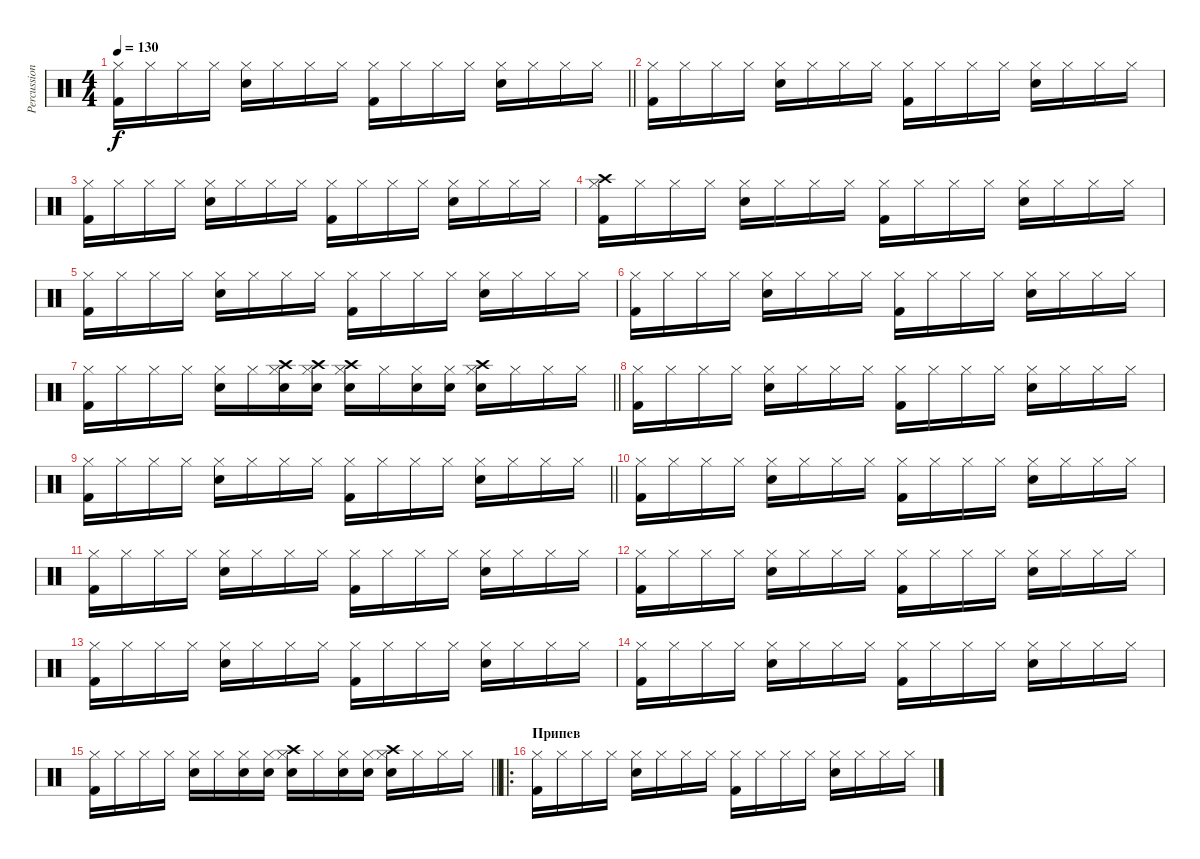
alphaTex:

\track ("Percussion" "Percussion") {instrument percussion}
\staff {score}
\articulation defaults
\ts (4 4)
\tempo 130
\clef neutral
\barLineRight lightlight
\ks c
("Kick (hit) 2" "Hi-Hat (closed)").16{dy f} "Hi-Hat (closed)".16 "Hi-Hat (closed)".16 "Hi-Hat (closed)".16 ("Snare (hit) 2" "Hi-Hat (closed)").16 "Hi-Hat (closed)".16 "Hi-Hat (closed)".16 "Hi-Hat (closed)".16 ("Hi-Hat (closed)" "Kick (hit) 2").16 "Hi-Hat (closed)".16 "Hi-Hat (closed)".16 "Hi-Hat (closed)".16 ("Snare (hit) 2" "Hi-Hat (closed)").16 "Hi-Hat (closed)".16 "Hi-Hat (closed)".16 "Hi-Hat (closed)".16 |
("Kick (hit) 2" "Hi-Hat (closed)").16 "Hi-Hat (closed)".16 "Hi-Hat (closed)".16 "Hi-Hat (closed)".16 ("Snare (hit) 2" "Hi-Hat (closed)").16 "Hi-Hat (closed)".16 "Hi-Hat (closed)".16 "Hi-Hat (closed)".16 ("Hi-Hat (closed)" "Kick (hit) 2").16 "Hi-Hat (closed)".16 "Hi-Hat (closed)".16 "Hi-Hat (closed)".16 ("Snare (hit) 2" "Hi-Hat (closed)").16 "Hi-Hat (closed)".16 "Hi-Hat (closed)".16 "Hi-Hat (closed)".16 |
("Kick (hit) 2" "Hi-Hat (closed)").16 "Hi-Hat (closed)".16 "Hi-Hat (closed)".16 "Hi-Hat (closed)".16 ("Hi-Hat (closed)" "Snare (hit) 2").16 "Hi-Hat (closed)".16 "Hi-Hat (closed)".16 "Hi-Hat (closed)".16 ("Kick (hit) 2" "Hi-Hat (closed)").16 "Hi-Hat (closed)".16 "Hi-Hat (closed)".16 "Hi-Hat (closed)".16 ("Hi-Hat (closed)" "Snare (hit) 2").16 "Hi-Hat (closed)".16 "Hi-Hat (closed)".16 "Hi-Hat (closed)".16 |
("Hi-Hat (closed)" "Kick (hit) 2" "Crash high (hit)").16 "Hi-Hat (closed)".16 "Hi-Hat (closed)".16 "Hi-Hat (closed)".16 ("Snare (hit) 2" "Hi-Hat (closed)").16 "Hi-Hat (closed)".16 "Hi-Hat (closed)".16 "Hi-Hat (closed)".16 ("Kick (hit) 2" "Hi-Hat (closed)").16 "Hi-Hat (closed)".16 "Hi-Hat (closed)".16 "Hi-Hat (closed)".16 ("Snare (hit) 2" "Hi-Hat (closed)").16 "Hi-Hat (closed)".16 "Hi-Hat (closed)".16 "Hi-Hat (closed)".16 |
("Kick (hit) 2" "Hi-Hat (closed)").16 "Hi-Hat (closed)".16 "Hi-Hat (closed)".16 "Hi-Hat (closed)".16 ("Hi-Hat (closed)" "Snare (hit) 2").16 "Hi-Hat (closed)".16 "Hi-Hat (closed)".16 "Hi-Hat (closed)".16 ("Kick (hit) 2" "Hi-Hat (closed)").16 "Hi-Hat (closed)".16 "Hi-Hat (closed)".16 "Hi-Hat (closed)".16 ("Snare (hit) 2" "Hi-Hat (closed)").16 "Hi-Hat (closed)".16 "Hi-Hat (closed)".16 "Hi-Hat (closed)".16 |
("Kick (hit) 2" "Hi-Hat (closed)").16 "Hi-Hat (closed)".16 "Hi-Hat (closed)".16 "Hi-Hat (closed)".16 ("Snare (hit) 2" "Hi-Hat (closed)").16 "Hi-Hat (closed)".16 "Hi-Hat (closed)".16 "Hi-Hat (closed)".16 ("Hi-Hat (closed)" "Kick (hit) 2").16 "Hi-Hat (closed)".16 "Hi-Hat (closed)".16 "Hi-Hat (closed)".16 ("Snare (hit) 2" "Hi-Hat (closed)").16 "Hi-Hat (closed)".16 "Hi-Hat (closed)".16 "Hi-Hat (closed)".16 |
\barLineRight lightlight
("Hi-Hat (closed)" "Kick (hit) 2").16 "Hi-Hat (closed)".16 "Hi-Hat (closed)".16 "Hi-Hat (closed)".16 ("Snare (hit) 2" "Hi-Hat (closed)").16 "Hi-Hat (closed)".16 ("Hi-Hat (closed)" "Snare (hit) 2" "Crash high (hit)").16 ("Hi-Hat (closed)" "Snare (hit) 2" "Crash high (hit)").16 ("Crash high (hit)" "Hi-Hat (closed)" "Snare (hit) 2").16 "Hi-Hat (closed)".16 ("Hi-Hat (closed)" "Snare (hit) 2").16 ("Hi-Hat (closed)" "Snare (hit) 2").16 ("Hi-Hat (closed)" "Snare (hit) 2" "Crash high (hit)").16 "Hi-Hat (closed)".16 "Hi-Hat (closed)".16 "Hi-Hat (closed)".16 |
("Kick (hit) 2" "Hi-Hat (closed)").16 "Hi-Hat (closed)".16 "Hi-Hat (closed)".16 "Hi-Hat (closed)".16 ("Hi-Hat (closed)" "Snare (hit) 2").16 "Hi-Hat (closed)".16 "Hi-Hat (closed)".16 "Hi-Hat (closed)".16 ("Kick (hit) 2" "Hi-Hat (closed)").16 "Hi-Hat (closed)".16 "Hi-Hat (closed)".16 "Hi-Hat (closed)".16 ("Snare (hit) 2" "Hi-Hat (closed)").16 "Hi-Hat (closed)".16 "Hi-Hat (closed)".16 "Hi-Hat (closed)".16 |
\barLineRight lightlight
("Hi-Hat (closed)" "Kick (hit) 2").16 "Hi-Hat (closed)".16 "Hi-Hat (closed)".16 "Hi-Hat (closed)".16 ("Snare (hit) 2" "Hi-Hat (closed)").16 "Hi-Hat (closed)".16 "Hi-Hat (closed)".16 "Hi-Hat (closed)".16 ("Hi-Hat (closed)" "Kick (hit) 2").16 "Hi-Hat (closed)".16 "Hi-Hat (closed)".16 "Hi-Hat (closed)".16 ("Snare (hit) 2" "Hi-Hat (closed)").16 "Hi-Hat (closed)".16 "Hi-Hat (closed)".16 "Hi-Hat (closed)".16 |
("Kick (hit) 2" "Hi-Hat (closed)").16 "Hi-Hat (closed)".16 "Hi-Hat (closed)".16 "Hi-Hat (closed)".16 ("Hi-Hat (closed)" "Snare (hit) 2").16 "Hi-Hat (closed)".16 "Hi-Hat (closed)".16 "Hi-Hat (closed)".16 ("Kick (hit) 2" "Hi-Hat (closed)").16 "Hi-Hat (closed)".16 "Hi-Hat (closed)".16 "Hi-Hat (closed)".16 ("Hi-Hat (closed)" "Snare (hit) 2").16 "Hi-Hat (closed)".16 "Hi-Hat (closed)".16 "Hi-Hat (closed)".16 |
("Kick (hit) 2" "Hi-Hat (closed)").16 "Hi-Hat (closed)".16 "Hi-Hat (closed)".16 "Hi-Hat (closed)".16 ("Snare (hit) 2" "Hi-Hat (closed)").16 "Hi-Hat (closed)".16 "Hi-Hat (closed)".16 "Hi-Hat (closed)".16 ("Hi-Hat (closed)" "Kick (hit) 2").16 "Hi-Hat (closed)".16 "Hi-Hat (closed)".16 "Hi-Hat (closed)".16 ("Snare (hit) 2" "Hi-Hat (closed)").16 "Hi-Hat (closed)".16 "Hi-Hat (closed)".16 "Hi-Hat (closed)".16 |
("Kick (hit) 2" "Hi-Hat (closed)").16 "Hi-Hat (closed)".16 "Hi-Hat (closed)".16 "Hi-Hat (closed)".16 ("Snare (hit) 2" "Hi-Hat (closed)").16 "Hi-Hat (closed)".16 "Hi-Hat (closed)".16 "Hi-Hat (closed)".16 ("Hi-Hat (closed)" "Kick (hit) 2").16 "Hi-Hat (closed)".16 "Hi-Hat (closed)".16 "Hi-Hat (closed)".16 ("Snare (hit) 2" "Hi-Hat (closed)").16 "Hi-Hat (closed)".16 "Hi-Hat (closed)".16 "Hi-Hat (closed)".16 |
("Kick (hit) 2" "Hi-Hat (closed)").16 "Hi-Hat (closed)".16 "Hi-Hat (closed)".16 "Hi-Hat (closed)".16 ("Snare (hit) 2" "Hi-Hat (closed)").16 "Hi-Hat (closed)".16 "Hi-Hat (closed)".16 "Hi-Hat (closed)".16 ("Kick (hit) 2" "Hi-Hat (closed)").16 "Hi-Hat (closed)".16 "Hi-Hat (closed)".16 "Hi-Hat (closed)".16 ("Hi-Hat (closed)" "Snare (hit) 2").16 "Hi-Hat (closed)".16 "Hi-Hat (closed)".16 "Hi-Hat (closed)".16 |
("Kick (hit) 2" "Hi-Hat (closed)").16 "Hi-Hat (closed)".16 "Hi-Hat (closed)".16 "Hi-Hat (closed)".16 ("Snare (hit) 2" "Hi-Hat (closed)").16 "Hi-Hat (closed)".16 "Hi-Hat (closed)".16 "Hi-Hat (closed)".16 ("Kick (hit) 2" "Hi-Hat (closed)").16 "Hi-Hat (closed)".16 "Hi-Hat (closed)".16 "Hi-Hat (closed)".16 ("Snare (hit) 2" "Hi-Hat (closed)").16 "Hi-Hat (closed)".16 "Hi-Hat (closed)".16 "Hi-Hat (closed)".16 |
\barLineRight lightlight
("Kick (hit) 2" "Hi-Hat (closed)").16 "Hi-Hat (closed)".16 "Hi-Hat (closed)".16 "Hi-Hat (closed)".16 ("Hi-Hat (closed)" "Snare (hit) 2").16 "Hi-Hat (closed)".16 ("Hi-Hat (closed)" "Snare (hit) 2").16 ("Hi-Hat (closed)" "Snare (hit) 2").16 ("Crash high (hit)" "Hi-Hat (closed)" "Snare (hit) 2").16 "Hi-Hat (closed)".16 ("Snare (hit) 2" "Hi-Hat (closed)").16 ("Snare (hit) 2" "Hi-Hat (closed)").16 ("Crash high (hit)" "Snare (hit) 2" "Hi-Hat (closed)").16 "Hi-Hat (closed)".16 "Hi-Hat (closed)".16 "Hi-Hat (closed)".16 |
\ro
\section ("" "Припев")
("Kick (hit) 2" "Hi-Hat (closed)").16 "Hi-Hat (closed)".16 "Hi-Hat (closed)".16 "Hi-Hat (closed)".16 ("Hi-Hat (closed)" "Snare (hit) 2").16 "Hi-Hat (closed)".16 "Hi-Hat (closed)".16 "Hi-Hat (closed)".16 ("Kick (hit) 2" "Hi-Hat (closed)").16 "Hi-Hat (closed)".16 "Hi-Hat (closed)".16 "Hi-Hat (closed)".16 ("Hi-Hat (closed)" "Snare (hit) 2").16 "Hi-Hat (closed)".16 "Hi-Hat (closed)".16 "Hi-Hat (closed)".16
